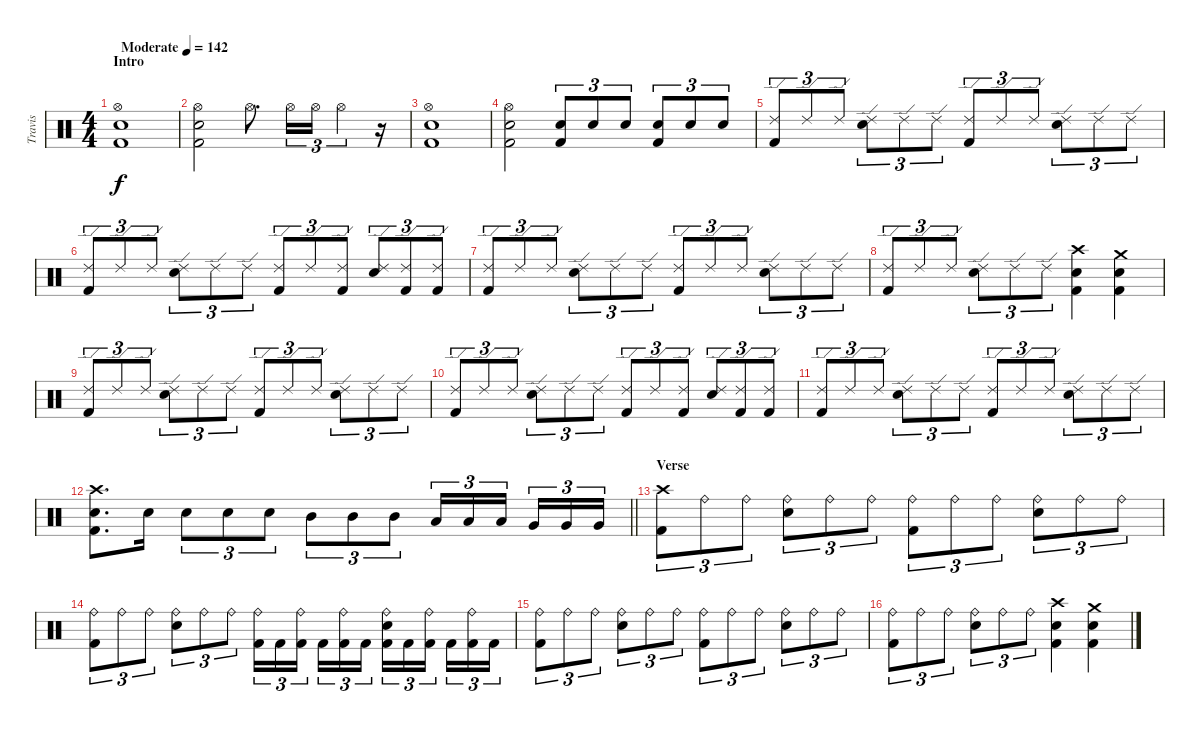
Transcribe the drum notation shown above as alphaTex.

\track ("Travis" "Travis") {instrument percussion}
\staff {score}
\articulation defaults
\ts (4 4)
\section ("" "Intro")
\tempo (142 "Moderate")
\clef neutral
\ks c
("Hi-Hat (open)" "Electric Snare (hit)" "Kick (hit) 2").1{dy f} |
("Hi-Hat (open)" "Electric Snare (hit)" "Kick (hit) 2").2 "Hi-Hat (open)".8{d} "Hi-Hat (open)".16{tu (3 2)} "Hi-Hat (open)".16{tu (3 2)} "Hi-Hat (open)".4{tu (3 2)} r.16 |
("Hi-Hat (open)" "Electric Snare (hit)" "Kick (hit) 2").1 |
("Hi-Hat (open)" "Electric Snare (hit)" "Kick (hit) 2").2 ("Electric Snare (hit)" "Kick (hit) 2").8{tu (3 2)} "Electric Snare (hit)".8{tu (3 2)} "Electric Snare (hit)".8{tu (3 2)} ("Electric Snare (hit)" "Kick (hit) 2").8{tu (3 2)} "Electric Snare (hit)".8{tu (3 2)} "Electric Snare (hit)".8{tu (3 2)} |
("Ride (edge) 2" "Kick (hit) 2").8{tu (3 2)} "Ride (edge) 2".8{tu (3 2)} "Ride (edge) 2".8{tu (3 2)} ("Ride (edge) 2" "Electric Snare (hit)").8{tu (3 2)} "Ride (edge) 2".8{tu (3 2)} "Ride (edge) 2".8{tu (3 2)} ("Ride (edge) 2" "Kick (hit) 2").8{tu (3 2)} "Ride (edge) 2".8{tu (3 2)} "Ride (edge) 2".8{tu (3 2)} ("Ride (edge) 2" "Electric Snare (hit)").8{tu (3 2)} "Ride (edge) 2".8{tu (3 2)} "Ride (edge) 2".8{tu (3 2)} |
("Ride (edge) 2" "Kick (hit) 2").8{tu (3 2)} "Ride (edge) 2".8{tu (3 2)} "Ride (edge) 2".8{tu (3 2)} ("Ride (edge) 2" "Electric Snare (hit)").8{tu (3 2)} "Ride (edge) 2".8{tu (3 2)} "Ride (edge) 2".8{tu (3 2)} ("Ride (edge) 2" "Kick (hit) 2").8{tu (3 2)} "Ride (edge) 2".8{tu (3 2)} ("Ride (edge) 2" "Kick (hit) 2").8{tu (3 2)} ("Ride (edge) 2" "Electric Snare (hit)").8{tu (3 2)} ("Ride (edge) 2" "Kick (hit) 2").8{tu (3 2)} ("Ride (edge) 2" "Kick (hit) 2").8{tu (3 2)} |
("Ride (edge) 2" "Kick (hit) 2").8{tu (3 2)} "Ride (edge) 2".8{tu (3 2)} "Ride (edge) 2".8{tu (3 2)} ("Ride (edge) 2" "Electric Snare (hit)").8{tu (3 2)} "Ride (edge) 2".8{tu (3 2)} "Ride (edge) 2".8{tu (3 2)} ("Ride (edge) 2" "Kick (hit) 2").8{tu (3 2)} "Ride (edge) 2".8{tu (3 2)} "Ride (edge) 2".8{tu (3 2)} ("Ride (edge) 2" "Electric Snare (hit)").8{tu (3 2)} "Ride (edge) 2".8{tu (3 2)} "Ride (edge) 2".8{tu (3 2)} |
("Ride (edge) 2" "Kick (hit) 2").8{tu (3 2)} "Ride (edge) 2".8{tu (3 2)} "Ride (edge) 2".8{tu (3 2)} ("Ride (edge) 2" "Electric Snare (hit)").8{tu (3 2)} "Ride (edge) 2".8{tu (3 2)} "Ride (edge) 2".8{tu (3 2)} ("Crash high (hit)" "Electric Snare (hit)" "Kick (hit) 2").4 ("Crash medium (hit)" "Electric Snare (hit)" "Kick (hit) 2").4 |
("Ride (edge) 2" "Kick (hit) 2").8{tu (3 2)} "Ride (edge) 2".8{tu (3 2)} "Ride (edge) 2".8{tu (3 2)} ("Ride (edge) 2" "Electric Snare (hit)").8{tu (3 2)} "Ride (edge) 2".8{tu (3 2)} "Ride (edge) 2".8{tu (3 2)} ("Ride (edge) 2" "Kick (hit) 2").8{tu (3 2)} "Ride (edge) 2".8{tu (3 2)} "Ride (edge) 2".8{tu (3 2)} ("Ride (edge) 2" "Electric Snare (hit)").8{tu (3 2)} "Ride (edge) 2".8{tu (3 2)} "Ride (edge) 2".8{tu (3 2)} |
("Ride (edge) 2" "Kick (hit) 2").8{tu (3 2)} "Ride (edge) 2".8{tu (3 2)} "Ride (edge) 2".8{tu (3 2)} ("Ride (edge) 2" "Electric Snare (hit)").8{tu (3 2)} "Ride (edge) 2".8{tu (3 2)} "Ride (edge) 2".8{tu (3 2)} ("Ride (edge) 2" "Kick (hit) 2").8{tu (3 2)} "Ride (edge) 2".8{tu (3 2)} ("Ride (edge) 2" "Kick (hit) 2").8{tu (3 2)} ("Ride (edge) 2" "Electric Snare (hit)").8{tu (3 2)} ("Ride (edge) 2" "Kick (hit) 2").8{tu (3 2)} ("Ride (edge) 2" "Kick (hit) 2").8{tu (3 2)} |
("Ride (edge) 2" "Kick (hit) 2").8{tu (3 2)} "Ride (edge) 2".8{tu (3 2)} "Ride (edge) 2".8{tu (3 2)} ("Ride (edge) 2" "Electric Snare (hit)").8{tu (3 2)} "Ride (edge) 2".8{tu (3 2)} "Ride (edge) 2".8{tu (3 2)} ("Ride (edge) 2" "Kick (hit) 2").8{tu (3 2)} "Ride (edge) 2".8{tu (3 2)} "Ride (edge) 2".8{tu (3 2)} ("Ride (edge) 2" "Electric Snare (hit)").8{tu (3 2)} "Ride (edge) 2".8{tu (3 2)} "Ride (edge) 2".8{tu (3 2)} |
\barLineRight lightlight
("Crash high (hit)" "Electric Snare (hit)" "Kick (hit) 2").8{d} "Electric Snare (hit)".16 "Electric Snare (hit)".8{tu (3 2)} "Electric Snare (hit)".8{tu (3 2)} "Electric Snare (hit)".8{tu (3 2)} "Mid Tom (hit)".8{tu (3 2)} "Mid Tom (hit)".8{tu (3 2)} "Mid Tom (hit)".8{tu (3 2)} "Low Tom (hit)".16{tu (3 2)} "Low Tom (hit)".16{tu (3 2)} "Low Tom (hit)".16{tu (3 2) beam splitsecondary} "Very Low Tom (hit)".16{tu (3 2)} "Very Low Tom (hit)".16{tu (3 2)} "Very Low Tom (hit)".16{tu (3 2)} |
\section ("" "Verse")
("Crash high (hit)" "Kick (hit) 2").8{tu (3 2)} "Ride (bell)".8{tu (3 2)} "Ride (bell)".8{tu (3 2)} ("Ride (bell)" "Electric Snare (hit)").8{tu (3 2)} "Ride (bell)".8{tu (3 2)} "Ride (bell)".8{tu (3 2)} ("Ride (bell)" "Kick (hit) 2").8{tu (3 2)} "Ride (bell)".8{tu (3 2)} "Ride (bell)".8{tu (3 2)} ("Ride (bell)" "Electric Snare (hit)").8{tu (3 2)} "Ride (bell)".8{tu (3 2)} "Ride (bell)".8{tu (3 2)} |
("Ride (bell)" "Kick (hit) 2").8{tu (3 2)} "Ride (bell)".8{tu (3 2)} "Ride (bell)".8{tu (3 2)} ("Ride (bell)" "Electric Snare (hit)").8{tu (3 2)} "Ride (bell)".8{tu (3 2)} "Ride (bell)".8{tu (3 2)} ("Ride (bell)" "Kick (hit) 2").16{tu (3 2)} "Kick (hit) 2".16{tu (3 2)} ("Ride (bell)" "Kick (hit) 2").16{tu (3 2) beam splitsecondary} "Kick (hit) 2".16{tu (3 2)} ("Ride (bell)" "Kick (hit) 2").16{tu (3 2)} "Kick (hit) 2".16{tu (3 2)} ("Ride (bell)" "Electric Snare (hit)" "Kick (hit) 2").16{tu (3 2)} "Kick (hit) 2".16{tu (3 2)} ("Ride (bell)" "Kick (hit) 2").16{tu (3 2) beam splitsecondary} "Kick (hit) 2".16{tu (3 2)} ("Ride (bell)" "Kick (hit) 2").16{tu (3 2)} "Kick (hit) 2".16{tu (3 2)} |
("Ride (bell)" "Kick (hit) 2").8{tu (3 2)} "Ride (bell)".8{tu (3 2)} "Ride (bell)".8{tu (3 2)} ("Ride (bell)" "Electric Snare (hit)").8{tu (3 2)} "Ride (bell)".8{tu (3 2)} "Ride (bell)".8{tu (3 2)} ("Ride (bell)" "Kick (hit) 2").8{tu (3 2)} "Ride (bell)".8{tu (3 2)} "Ride (bell)".8{tu (3 2)} ("Ride (bell)" "Electric Snare (hit)").8{tu (3 2)} "Ride (bell)".8{tu (3 2)} "Ride (bell)".8{tu (3 2)} |
("Ride (bell)" "Kick (hit) 2").8{tu (3 2)} "Ride (bell)".8{tu (3 2)} "Ride (bell)".8{tu (3 2)} ("Ride (bell)" "Electric Snare (hit)").8{tu (3 2)} "Ride (bell)".8{tu (3 2)} "Ride (bell)".8{tu (3 2)} ("Crash high (hit)" "Electric Snare (hit)" "Kick (hit) 2").4 ("Crash medium (hit)" "Electric Snare (hit)" "Kick (hit) 2").4
